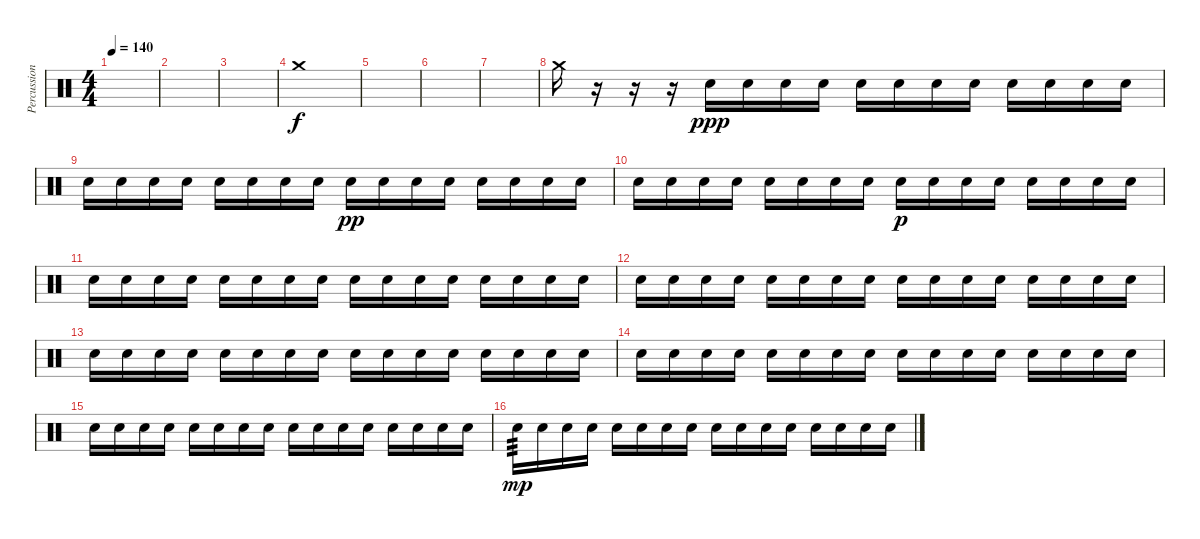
\track ("Percussion" "Percussion") {instrument percussion}
\staff {score}
\articulation defaults
\ts (4 4)
\tempo 140
\clef neutral
\ks c
|
|
|
"Crash medium (hit)".1{dy f} |
|
|
|
"Crash medium (hit)".16 r.16 r.16 r.16 "Snare (hit) 2".16{dy ppp} "Snare (hit) 2".16 "Snare (hit) 2".16 "Snare (hit) 2".16 "Snare (hit) 2".16 "Snare (hit) 2".16 "Snare (hit) 2".16 "Snare (hit) 2".16 "Snare (hit) 2".16 "Snare (hit) 2".16 "Snare (hit) 2".16 "Snare (hit) 2".16 |
"Snare (hit) 2".16 "Snare (hit) 2".16 "Snare (hit) 2".16 "Snare (hit) 2".16 "Snare (hit) 2".16 "Snare (hit) 2".16 "Snare (hit) 2".16 "Snare (hit) 2".16 "Snare (hit) 2".16{dy pp} "Snare (hit) 2".16 "Snare (hit) 2".16 "Snare (hit) 2".16 "Snare (hit) 2".16 "Snare (hit) 2".16 "Snare (hit) 2".16 "Snare (hit) 2".16 |
"Snare (hit) 2".16 "Snare (hit) 2".16 "Snare (hit) 2".16 "Snare (hit) 2".16 "Snare (hit) 2".16 "Snare (hit) 2".16 "Snare (hit) 2".16 "Snare (hit) 2".16 "Snare (hit) 2".16{dy p} "Snare (hit) 2".16 "Snare (hit) 2".16 "Snare (hit) 2".16 "Snare (hit) 2".16 "Snare (hit) 2".16 "Snare (hit) 2".16 "Snare (hit) 2".16 |
"Snare (hit) 2".16 "Snare (hit) 2".16 "Snare (hit) 2".16 "Snare (hit) 2".16 "Snare (hit) 2".16 "Snare (hit) 2".16 "Snare (hit) 2".16 "Snare (hit) 2".16 "Snare (hit) 2".16 "Snare (hit) 2".16 "Snare (hit) 2".16 "Snare (hit) 2".16 "Snare (hit) 2".16 "Snare (hit) 2".16 "Snare (hit) 2".16 "Snare (hit) 2".16 |
"Snare (hit) 2".16 "Snare (hit) 2".16 "Snare (hit) 2".16 "Snare (hit) 2".16 "Snare (hit) 2".16 "Snare (hit) 2".16 "Snare (hit) 2".16 "Snare (hit) 2".16 "Snare (hit) 2".16 "Snare (hit) 2".16 "Snare (hit) 2".16 "Snare (hit) 2".16 "Snare (hit) 2".16 "Snare (hit) 2".16 "Snare (hit) 2".16 "Snare (hit) 2".16 |
"Snare (hit) 2".16 "Snare (hit) 2".16 "Snare (hit) 2".16 "Snare (hit) 2".16 "Snare (hit) 2".16 "Snare (hit) 2".16 "Snare (hit) 2".16 "Snare (hit) 2".16 "Snare (hit) 2".16 "Snare (hit) 2".16 "Snare (hit) 2".16 "Snare (hit) 2".16 "Snare (hit) 2".16 "Snare (hit) 2".16 "Snare (hit) 2".16 "Snare (hit) 2".16 |
"Snare (hit) 2".16 "Snare (hit) 2".16 "Snare (hit) 2".16 "Snare (hit) 2".16 "Snare (hit) 2".16 "Snare (hit) 2".16 "Snare (hit) 2".16 "Snare (hit) 2".16 "Snare (hit) 2".16 "Snare (hit) 2".16 "Snare (hit) 2".16 "Snare (hit) 2".16 "Snare (hit) 2".16 "Snare (hit) 2".16 "Snare (hit) 2".16 "Snare (hit) 2".16 |
"Snare (hit) 2".16 "Snare (hit) 2".16 "Snare (hit) 2".16 "Snare (hit) 2".16 "Snare (hit) 2".16 "Snare (hit) 2".16 "Snare (hit) 2".16 "Snare (hit) 2".16 "Snare (hit) 2".16 "Snare (hit) 2".16 "Snare (hit) 2".16 "Snare (hit) 2".16 "Snare (hit) 2".16 "Snare (hit) 2".16 "Snare (hit) 2".16 "Snare (hit) 2".16 |
"Snare (hit) 2".16{tp 3 dy mp} "Snare (hit) 2".16 "Snare (hit) 2".16 "Snare (hit) 2".16 "Snare (hit) 2".16 "Snare (hit) 2".16 "Snare (hit) 2".16 "Snare (hit) 2".16 "Snare (hit) 2".16 "Snare (hit) 2".16 "Snare (hit) 2".16 "Snare (hit) 2".16 "Snare (hit) 2".16 "Snare (hit) 2".16 "Snare (hit) 2".16 "Snare (hit) 2".16
